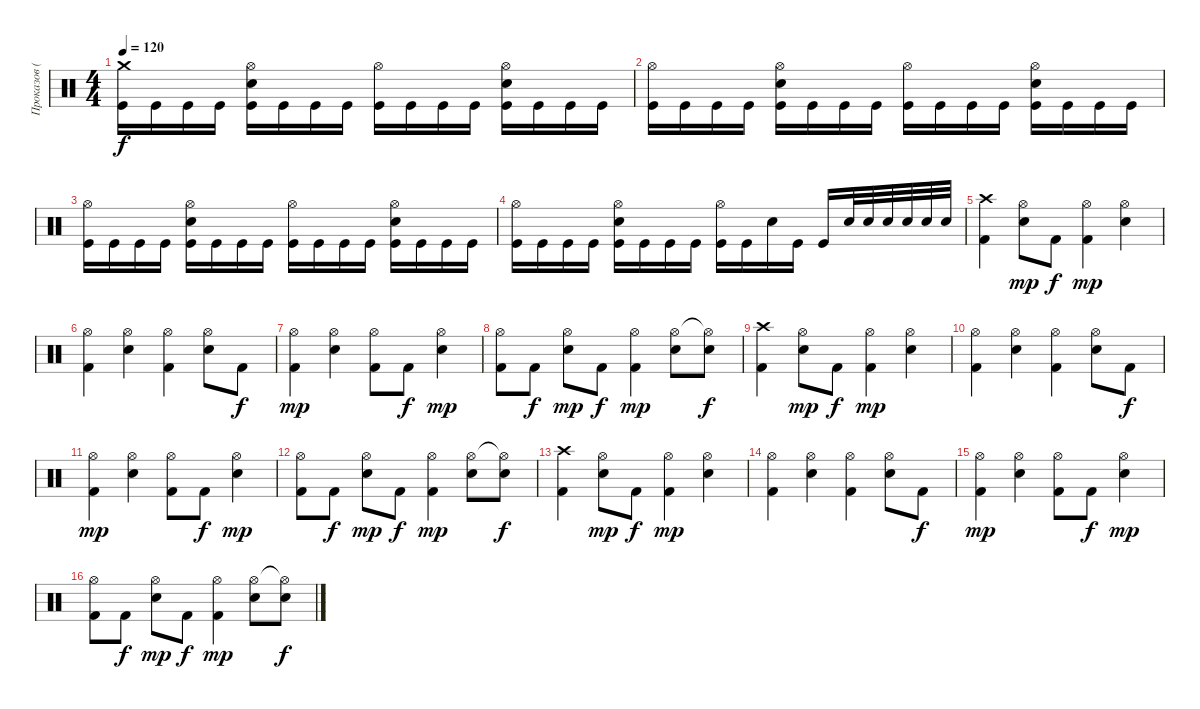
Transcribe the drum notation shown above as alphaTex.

\track ("Проказов (ударные)" "Проказов (") {instrument percussion}
\staff {score}
\articulation defaults
\ts (4 4)
\tempo 120
\clef neutral
\ks c
("Kick (hit)" "Crash medium (hit)").16{dy f} "Kick (hit)".16 "Kick (hit)".16 "Kick (hit)".16 ("Kick (hit)" "Snare (hit) 2" "Hi-Hat (open)").16 "Kick (hit)".16 "Kick (hit)".16 "Kick (hit)".16 ("Kick (hit)" "Hi-Hat (open)").16 "Kick (hit)".16 "Kick (hit)".16 "Kick (hit)".16 ("Kick (hit)" "Snare (hit) 2" "Hi-Hat (open)").16 "Kick (hit)".16 "Kick (hit)".16 "Kick (hit)".16 |
("Kick (hit)" "Hi-Hat (open)").16 "Kick (hit)".16 "Kick (hit)".16 "Kick (hit)".16 ("Kick (hit)" "Snare (hit) 2" "Hi-Hat (open)").16 "Kick (hit)".16 "Kick (hit)".16 "Kick (hit)".16 ("Kick (hit)" "Hi-Hat (open)").16 "Kick (hit)".16 "Kick (hit)".16 "Kick (hit)".16 ("Kick (hit)" "Snare (hit) 2" "Hi-Hat (open)").16 "Kick (hit)".16 "Kick (hit)".16 "Kick (hit)".16 |
("Kick (hit)" "Hi-Hat (open)").16 "Kick (hit)".16 "Kick (hit)".16 "Kick (hit)".16 ("Kick (hit)" "Snare (hit) 2" "Hi-Hat (open)").16 "Kick (hit)".16 "Kick (hit)".16 "Kick (hit)".16 ("Kick (hit)" "Hi-Hat (open)").16 "Kick (hit)".16 "Kick (hit)".16 "Kick (hit)".16 ("Kick (hit)" "Snare (hit) 2" "Hi-Hat (open)").16 "Kick (hit)".16 "Kick (hit)".16 "Kick (hit)".16 |
("Kick (hit)" "Hi-Hat (open)").16 "Kick (hit)".16 "Kick (hit)".16 "Kick (hit)".16 ("Kick (hit)" "Snare (hit) 2" "Hi-Hat (open)").16 "Kick (hit)".16 "Kick (hit)".16 "Kick (hit)".16 ("Kick (hit)" "Hi-Hat (open)").16 "Kick (hit)".16 "Snare (hit) 2".16 "Kick (hit)".16 "Kick (hit)".16 "Electric Snare (hit)".32 "Electric Snare (hit)".32 "Electric Snare (hit)".32 "Electric Snare (hit)".32 "Electric Snare (hit)".32 "Electric Snare (hit)".32 |
("Crash high (hit)" "Kick (hit) 2").4 ("Hi-Hat (open)" "Snare (hit) 2").8{dy mp} "Kick (hit) 2".8{dy f} ("Hi-Hat (open)" "Kick (hit) 2").4{dy mp} ("Hi-Hat (open)" "Snare (hit) 2").4 |
("Hi-Hat (open)" "Kick (hit) 2").4 ("Hi-Hat (open)" "Snare (hit) 2").4 ("Hi-Hat (open)" "Kick (hit) 2").4 ("Hi-Hat (open)" "Snare (hit) 2").8 "Kick (hit) 2".8{dy f} |
("Hi-Hat (open)" "Kick (hit) 2").4{dy mp} ("Hi-Hat (open)" "Snare (hit) 2").4 ("Hi-Hat (open)" "Kick (hit) 2").8 "Kick (hit) 2".8{dy f} ("Hi-Hat (open)" "Snare (hit) 2").4{dy mp} |
("Hi-Hat (open)" "Kick (hit) 2").8 "Kick (hit) 2".8{dy f} ("Hi-Hat (open)" "Snare (hit) 2").8{dy mp} "Kick (hit) 2".8{dy f} ("Hi-Hat (open)" "Kick (hit) 2").4{dy mp} ("Hi-Hat (open)" "Snare (hit) 2").8 ("Hi-Hat (open)"{t} "Snare (hit) 2").8{dy f} |
("Crash high (hit)" "Kick (hit) 2").4 ("Hi-Hat (open)" "Snare (hit) 2").8{dy mp} "Kick (hit) 2".8{dy f} ("Hi-Hat (open)" "Kick (hit) 2").4{dy mp} ("Hi-Hat (open)" "Snare (hit) 2").4 |
("Hi-Hat (open)" "Kick (hit) 2").4 ("Hi-Hat (open)" "Snare (hit) 2").4 ("Hi-Hat (open)" "Kick (hit) 2").4 ("Hi-Hat (open)" "Snare (hit) 2").8 "Kick (hit) 2".8{dy f} |
("Hi-Hat (open)" "Kick (hit) 2").4{dy mp} ("Hi-Hat (open)" "Snare (hit) 2").4 ("Hi-Hat (open)" "Kick (hit) 2").8 "Kick (hit) 2".8{dy f} ("Hi-Hat (open)" "Snare (hit) 2").4{dy mp} |
("Hi-Hat (open)" "Kick (hit) 2").8 "Kick (hit) 2".8{dy f} ("Hi-Hat (open)" "Snare (hit) 2").8{dy mp} "Kick (hit) 2".8{dy f} ("Hi-Hat (open)" "Kick (hit) 2").4{dy mp} ("Hi-Hat (open)" "Snare (hit) 2").8 ("Hi-Hat (open)"{t} "Snare (hit) 2").8{dy f} |
("Crash high (hit)" "Kick (hit) 2").4 ("Hi-Hat (open)" "Snare (hit) 2").8{dy mp} "Kick (hit) 2".8{dy f} ("Hi-Hat (open)" "Kick (hit) 2").4{dy mp} ("Hi-Hat (open)" "Snare (hit) 2").4 |
("Hi-Hat (open)" "Kick (hit) 2").4 ("Hi-Hat (open)" "Snare (hit) 2").4 ("Hi-Hat (open)" "Kick (hit) 2").4 ("Hi-Hat (open)" "Snare (hit) 2").8 "Kick (hit) 2".8{dy f} |
("Hi-Hat (open)" "Kick (hit) 2").4{dy mp} ("Hi-Hat (open)" "Snare (hit) 2").4 ("Hi-Hat (open)" "Kick (hit) 2").8 "Kick (hit) 2".8{dy f} ("Hi-Hat (open)" "Snare (hit) 2").4{dy mp} |
("Hi-Hat (open)" "Kick (hit) 2").8 "Kick (hit) 2".8{dy f} ("Hi-Hat (open)" "Snare (hit) 2").8{dy mp} "Kick (hit) 2".8{dy f} ("Hi-Hat (open)" "Kick (hit) 2").4{dy mp} ("Hi-Hat (open)" "Snare (hit) 2").8 ("Hi-Hat (open)"{t} "Snare (hit) 2").8{dy f}
